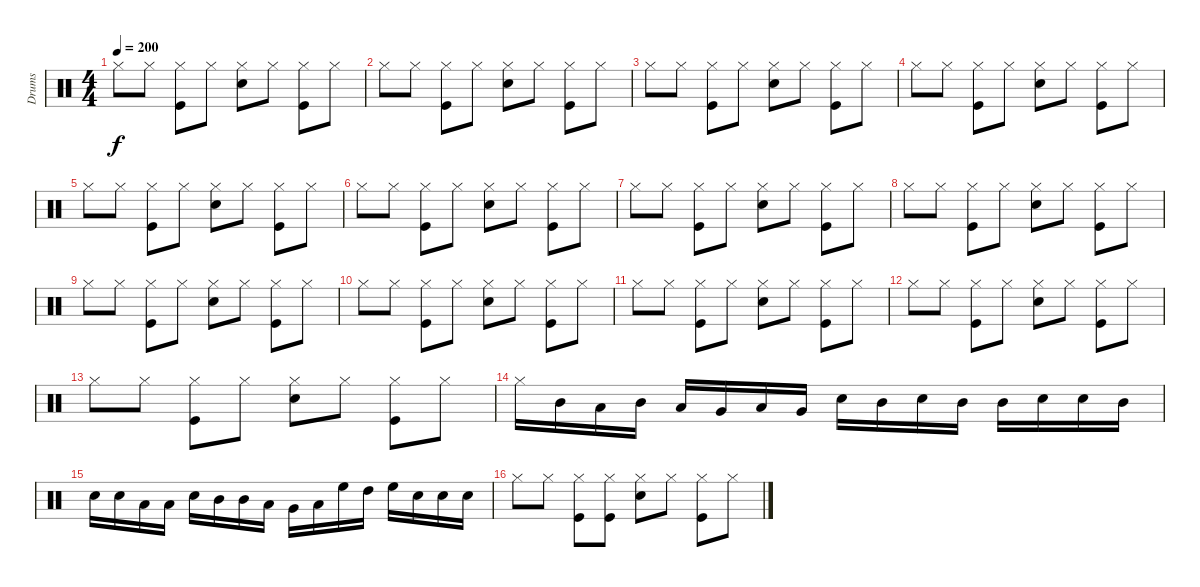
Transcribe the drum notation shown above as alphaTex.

\track ("Drums" "Drums") {instrument percussion}
\staff {score}
\articulation defaults
\ts (4 4)
\tempo 200
\clef neutral
\ks c "Hi-Hat (closed)".8{dy f} "Hi-Hat (closed)".8
("Kick (hit)" "Hi-Hat (closed)").8 "Hi-Hat (closed)".8 ("Electric Snare (hit)" "Hi-Hat (closed)").8 "Hi-Hat (closed)".8 ("Hi-Hat (closed)" "Kick (hit)").8 "Hi-Hat (closed)".8 |
"Hi-Hat (closed)".8 "Hi-Hat (closed)".8 ("Kick (hit)" "Hi-Hat (closed)").8 "Hi-Hat (closed)".8 ("Electric Snare (hit)" "Hi-Hat (closed)").8 "Hi-Hat (closed)".8 ("Hi-Hat (closed)" "Kick (hit)").8 "Hi-Hat (closed)".8 |
"Hi-Hat (closed)".8 "Hi-Hat (closed)".8 ("Kick (hit)" "Hi-Hat (closed)").8 "Hi-Hat (closed)".8 ("Electric Snare (hit)" "Hi-Hat (closed)").8 "Hi-Hat (closed)".8 ("Hi-Hat (closed)" "Kick (hit)").8 "Hi-Hat (closed)".8 |
"Hi-Hat (closed)".8 "Hi-Hat (closed)".8 ("Kick (hit)" "Hi-Hat (closed)").8 "Hi-Hat (closed)".8 ("Electric Snare (hit)" "Hi-Hat (closed)").8 "Hi-Hat (closed)".8 ("Hi-Hat (closed)" "Kick (hit)").8 "Hi-Hat (closed)".8 |
"Hi-Hat (closed)".8 "Hi-Hat (closed)".8 ("Kick (hit)" "Hi-Hat (closed)").8 "Hi-Hat (closed)".8 ("Electric Snare (hit)" "Hi-Hat (closed)").8 "Hi-Hat (closed)".8 ("Hi-Hat (closed)" "Kick (hit)").8 "Hi-Hat (closed)".8 |
"Hi-Hat (closed)".8 "Hi-Hat (closed)".8 ("Kick (hit)" "Hi-Hat (closed)").8 "Hi-Hat (closed)".8 ("Electric Snare (hit)" "Hi-Hat (closed)").8 "Hi-Hat (closed)".8 ("Hi-Hat (closed)" "Kick (hit)").8 "Hi-Hat (closed)".8 |
"Hi-Hat (closed)".8 "Hi-Hat (closed)".8 ("Kick (hit)" "Hi-Hat (closed)").8 "Hi-Hat (closed)".8 ("Electric Snare (hit)" "Hi-Hat (closed)").8 "Hi-Hat (closed)".8 ("Hi-Hat (closed)" "Kick (hit)").8 "Hi-Hat (closed)".8 |
"Hi-Hat (closed)".8 "Hi-Hat (closed)".8 ("Kick (hit)" "Hi-Hat (closed)").8 "Hi-Hat (closed)".8 ("Electric Snare (hit)" "Hi-Hat (closed)").8 "Hi-Hat (closed)".8 ("Hi-Hat (closed)" "Kick (hit)").8 "Hi-Hat (closed)".8 |
"Hi-Hat (closed)".8 "Hi-Hat (closed)".8 ("Kick (hit)" "Hi-Hat (closed)").8 "Hi-Hat (closed)".8 ("Electric Snare (hit)" "Hi-Hat (closed)").8 "Hi-Hat (closed)".8 ("Hi-Hat (closed)" "Kick (hit)").8 "Hi-Hat (closed)".8 |
"Hi-Hat (closed)".8 "Hi-Hat (closed)".8 ("Kick (hit)" "Hi-Hat (closed)").8 "Hi-Hat (closed)".8 ("Electric Snare (hit)" "Hi-Hat (closed)").8 "Hi-Hat (closed)".8 ("Hi-Hat (closed)" "Kick (hit)").8 "Hi-Hat (closed)".8 |
"Hi-Hat (closed)".8 "Hi-Hat (closed)".8 ("Kick (hit)" "Hi-Hat (closed)").8 "Hi-Hat (closed)".8 ("Electric Snare (hit)" "Hi-Hat (closed)").8 "Hi-Hat (closed)".8 ("Hi-Hat (closed)" "Kick (hit)").8 "Hi-Hat (closed)".8 |
"Hi-Hat (closed)".8 "Hi-Hat (closed)".8 ("Kick (hit)" "Hi-Hat (closed)").8 "Hi-Hat (closed)".8 ("Electric Snare (hit)" "Hi-Hat (closed)").8 "Hi-Hat (closed)".8 ("Hi-Hat (closed)" "Kick (hit)").8 "Hi-Hat (closed)".8 |
"Hi-Hat (closed)".8 "Hi-Hat (closed)".8 ("Kick (hit)" "Hi-Hat (closed)").8 "Hi-Hat (closed)".8 ("Electric Snare (hit)" "Hi-Hat (closed)").8 "Hi-Hat (closed)".8 ("Hi-Hat (closed)" "Kick (hit)").8 "Hi-Hat (closed)".8 |
"Hi-Hat (closed)".16 "Mid Tom (hit)".16 "Low Tom (hit)".16 "Mid Tom (hit)".16 "Low Floor Tom (hit)".16 "Very Low Tom (hit)".16 "Low Floor Tom (hit)".16 "Very Low Tom (hit)".16 "Electric Snare (hit)".16 "Mid Tom (hit)".16 "Electric Snare (hit)".16 "Mid Tom (hit)".16 "Mid Tom (hit)".16 "Electric Snare (hit)".16 "Electric Snare (hit)".16 "Mid Tom (hit)".16 |
"Electric Snare (hit)".16 "Electric Snare (hit)".16 "Low Tom (hit)".16 "Low Tom (hit)".16 "Electric Snare (hit)".16 "Mid Tom (hit)".16 "Mid Tom (hit)".16 "Low Tom (hit)".16 "Very Low Tom (hit)".16 "Low Floor Tom (hit)".16 "High Floor Tom (hit)".16 "High Tom (hit)".16 "High Floor Tom (hit)".16 "Electric Snare (hit)".16 "Electric Snare (hit)".16 "Electric Snare (hit)".16 |
"Hi-Hat (closed)".8 "Hi-Hat (closed)".8 ("Hi-Hat (closed)" "Kick (hit)").8 ("Kick (hit)" "Hi-Hat (closed)").8 ("Electric Snare (hit)" "Hi-Hat (closed)").8 "Hi-Hat (closed)".8 ("Hi-Hat (closed)" "Kick (hit)").8 "Hi-Hat (closed)".8
